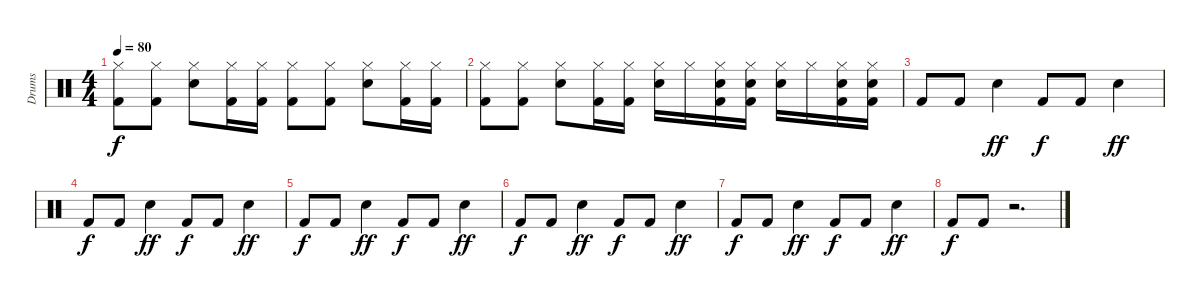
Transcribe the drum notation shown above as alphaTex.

\track ("Drums" "Drums") {instrument percussion}
\staff {score}
\articulation defaults
\ts (4 4)
\tempo 80
\clef neutral
\ks c
("Hi-Hat (closed)" "Kick (hit) 2").8{dy f} ("Hi-Hat (closed)" "Kick (hit) 2").8 ("Hi-Hat (closed)" "Electric Snare (hit)").8 ("Hi-Hat (closed)" "Kick (hit) 2").16 ("Hi-Hat (closed)" "Kick (hit) 2").16 ("Hi-Hat (closed)" "Kick (hit) 2").8 ("Hi-Hat (closed)" "Kick (hit) 2").8 ("Hi-Hat (closed)" "Electric Snare (hit)").8 ("Hi-Hat (closed)" "Kick (hit) 2").16 ("Hi-Hat (closed)" "Kick (hit) 2").16 |
("Hi-Hat (closed)" "Kick (hit) 2").8 ("Hi-Hat (closed)" "Kick (hit) 2").8 ("Hi-Hat (closed)" "Electric Snare (hit)").8 ("Hi-Hat (closed)" "Kick (hit) 2").16 ("Hi-Hat (closed)" "Kick (hit) 2").16 ("Hi-Hat (closed)" "Electric Snare (hit)").16 "Hi-Hat (closed)".16 ("Hi-Hat (closed)" "Electric Snare (hit)" "Kick (hit) 2").16 ("Hi-Hat (closed)" "Electric Snare (hit)" "Kick (hit) 2").16 ("Hi-Hat (closed)" "Electric Snare (hit)").16 "Hi-Hat (closed)".16 ("Hi-Hat (closed)" "Electric Snare (hit)" "Kick (hit) 2").16 ("Hi-Hat (closed)" "Electric Snare (hit)" "Kick (hit) 2").16 |
"Kick (hit) 2".8 "Kick (hit) 2".8 "Electric Snare (hit)".4{dy ff} "Kick (hit) 2".8{dy f} "Kick (hit) 2".8 "Electric Snare (hit)".4{dy ff} |
"Kick (hit) 2".8{dy f} "Kick (hit) 2".8 "Electric Snare (hit)".4{dy ff} "Kick (hit) 2".8{dy f} "Kick (hit) 2".8 "Electric Snare (hit)".4{dy ff} |
"Kick (hit) 2".8{dy f} "Kick (hit) 2".8 "Electric Snare (hit)".4{dy ff} "Kick (hit) 2".8{dy f} "Kick (hit) 2".8 "Electric Snare (hit)".4{dy ff} |
"Kick (hit) 2".8{dy f} "Kick (hit) 2".8 "Electric Snare (hit)".4{dy ff} "Kick (hit) 2".8{dy f} "Kick (hit) 2".8 "Electric Snare (hit)".4{dy ff} |
"Kick (hit) 2".8{dy f} "Kick (hit) 2".8 "Electric Snare (hit)".4{dy ff} "Kick (hit) 2".8{dy f} "Kick (hit) 2".8 "Electric Snare (hit)".4{dy ff} |
"Kick (hit) 2".8{dy f} "Kick (hit) 2".8 r.2{d}
